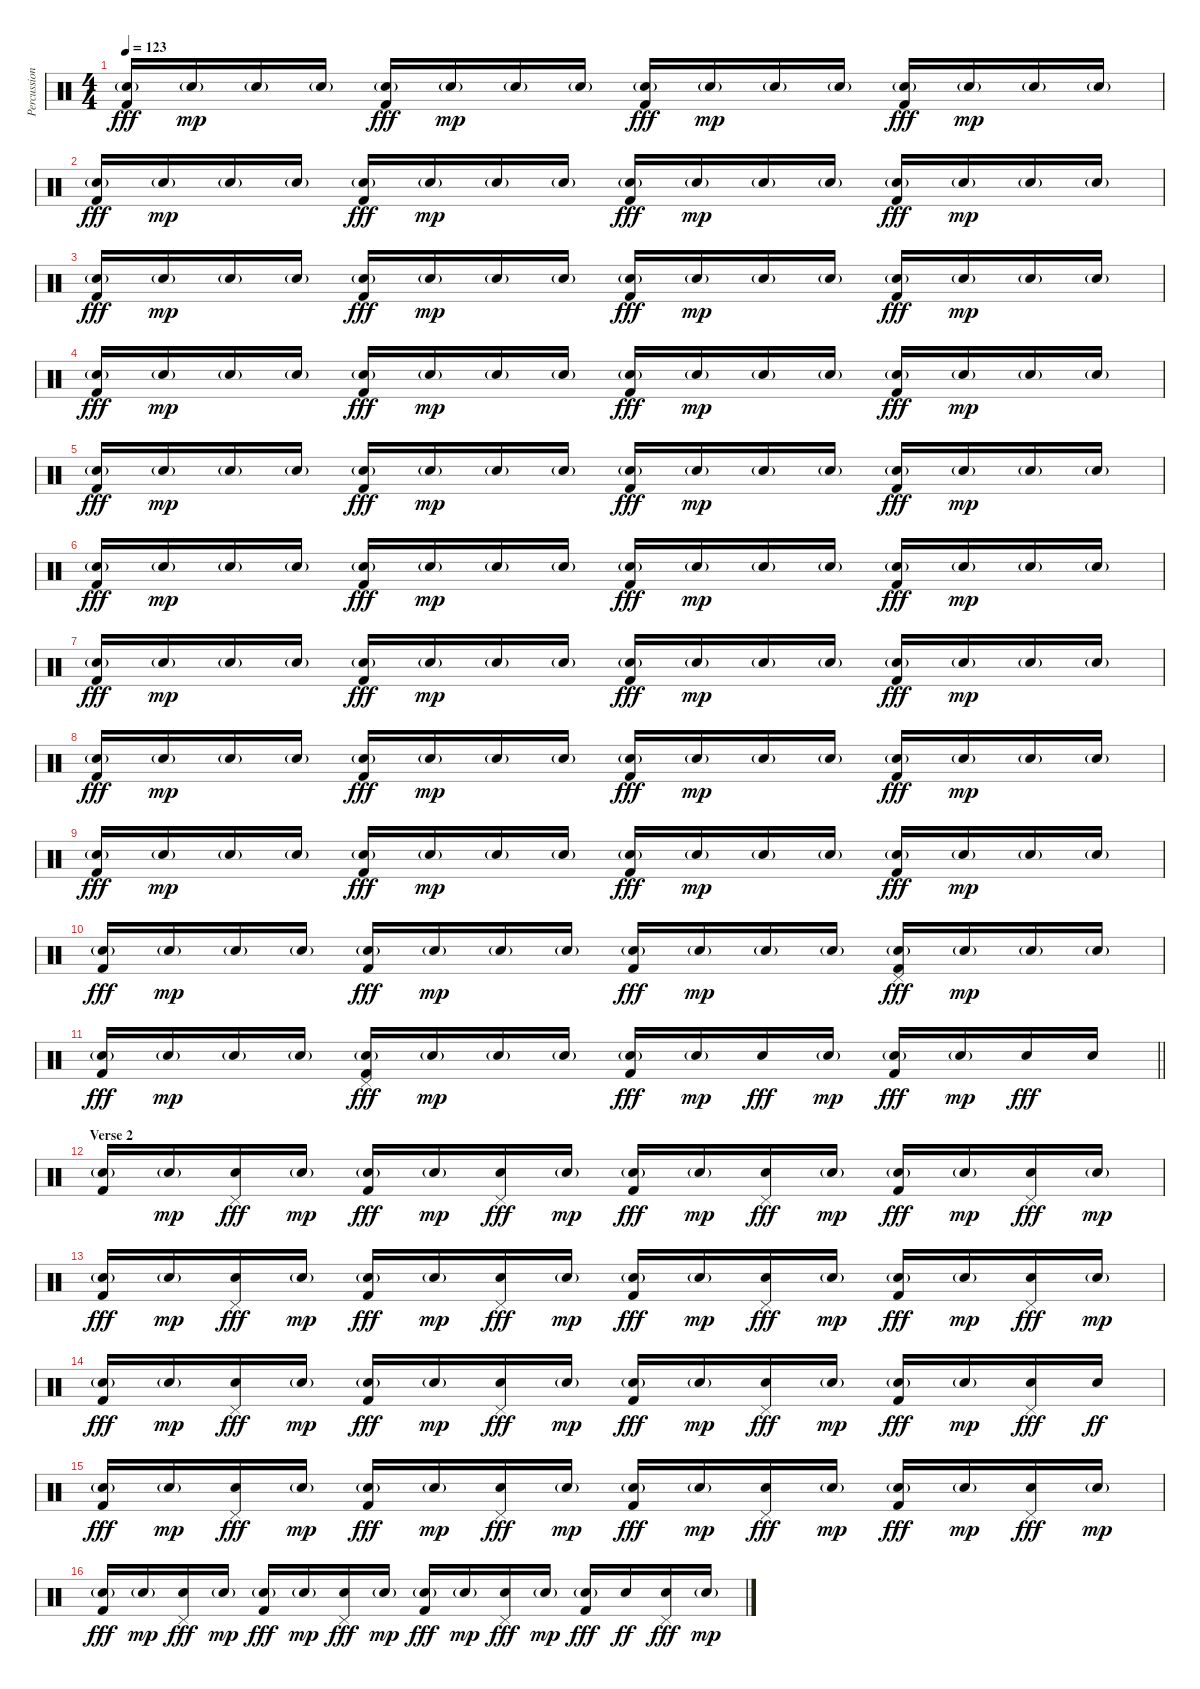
\track ("Percussion" "Percussion") {instrument percussion}
\staff {score}
\articulation defaults
\ts (4 4)
\tempo 123
\clef neutral
\ks c
("Electric Snare (hit)"{g} "Kick (hit) 2").16{dy fff} "Electric Snare (hit)"{g}.16{dy mp} "Electric Snare (hit)"{g}.16 "Electric Snare (hit)"{g}.16 ("Electric Snare (hit)"{g} "Kick (hit) 2").16{dy fff} "Electric Snare (hit)"{g}.16{dy mp} "Electric Snare (hit)"{g}.16 "Electric Snare (hit)"{g}.16 ("Electric Snare (hit)"{g} "Kick (hit) 2").16{dy fff} "Electric Snare (hit)"{g}.16{dy mp} "Electric Snare (hit)"{g}.16 "Electric Snare (hit)"{g}.16 ("Electric Snare (hit)"{g} "Kick (hit) 2").16{dy fff} "Electric Snare (hit)"{g}.16{dy mp} "Electric Snare (hit)"{g}.16 "Electric Snare (hit)"{g}.16 |
("Electric Snare (hit)"{g} "Kick (hit) 2").16{dy fff} "Electric Snare (hit)"{g}.16{dy mp} "Electric Snare (hit)"{g}.16 "Electric Snare (hit)"{g}.16 ("Electric Snare (hit)"{g} "Kick (hit) 2").16{dy fff} "Electric Snare (hit)"{g}.16{dy mp} "Electric Snare (hit)"{g}.16 "Electric Snare (hit)"{g}.16 ("Electric Snare (hit)"{g} "Kick (hit) 2").16{dy fff} "Electric Snare (hit)"{g}.16{dy mp} "Electric Snare (hit)"{g}.16 "Electric Snare (hit)"{g}.16 ("Electric Snare (hit)"{g} "Kick (hit) 2").16{dy fff} "Electric Snare (hit)"{g}.16{dy mp} "Electric Snare (hit)"{g}.16 "Electric Snare (hit)"{g}.16 |
("Electric Snare (hit)"{g} "Kick (hit) 2").16{dy fff} "Electric Snare (hit)"{g}.16{dy mp} "Electric Snare (hit)"{g}.16 "Electric Snare (hit)"{g}.16 ("Electric Snare (hit)"{g} "Kick (hit) 2").16{dy fff} "Electric Snare (hit)"{g}.16{dy mp} "Electric Snare (hit)"{g}.16 "Electric Snare (hit)"{g}.16 ("Electric Snare (hit)"{g} "Kick (hit) 2").16{dy fff} "Electric Snare (hit)"{g}.16{dy mp} "Electric Snare (hit)"{g}.16 "Electric Snare (hit)"{g}.16 ("Electric Snare (hit)"{g} "Kick (hit) 2").16{dy fff} "Electric Snare (hit)"{g}.16{dy mp} "Electric Snare (hit)"{g}.16 "Electric Snare (hit)"{g}.16 |
("Electric Snare (hit)"{g} "Kick (hit) 2").16{dy fff} "Electric Snare (hit)"{g}.16{dy mp} "Electric Snare (hit)"{g}.16 "Electric Snare (hit)"{g}.16 ("Electric Snare (hit)"{g} "Kick (hit) 2").16{dy fff} "Electric Snare (hit)"{g}.16{dy mp} "Electric Snare (hit)"{g}.16 "Electric Snare (hit)"{g}.16 ("Electric Snare (hit)"{g} "Kick (hit) 2").16{dy fff} "Electric Snare (hit)"{g}.16{dy mp} "Electric Snare (hit)"{g}.16 "Electric Snare (hit)"{g}.16 ("Electric Snare (hit)"{g} "Kick (hit) 2").16{dy fff} "Electric Snare (hit)"{g}.16{dy mp} "Electric Snare (hit)"{g}.16 "Electric Snare (hit)"{g}.16 |
("Electric Snare (hit)"{g} "Kick (hit) 2").16{dy fff} "Electric Snare (hit)"{g}.16{dy mp} "Electric Snare (hit)"{g}.16 "Electric Snare (hit)"{g}.16 ("Electric Snare (hit)"{g} "Kick (hit) 2").16{dy fff} "Electric Snare (hit)"{g}.16{dy mp} "Electric Snare (hit)"{g}.16 "Electric Snare (hit)"{g}.16 ("Electric Snare (hit)"{g} "Kick (hit) 2").16{dy fff} "Electric Snare (hit)"{g}.16{dy mp} "Electric Snare (hit)"{g}.16 "Electric Snare (hit)"{g}.16 ("Electric Snare (hit)"{g} "Kick (hit) 2").16{dy fff} "Electric Snare (hit)"{g}.16{dy mp} "Electric Snare (hit)"{g}.16 "Electric Snare (hit)"{g}.16 |
("Electric Snare (hit)"{g} "Kick (hit) 2").16{dy fff} "Electric Snare (hit)"{g}.16{dy mp} "Electric Snare (hit)"{g}.16 "Electric Snare (hit)"{g}.16 ("Electric Snare (hit)"{g} "Kick (hit) 2").16{dy fff} "Electric Snare (hit)"{g}.16{dy mp} "Electric Snare (hit)"{g}.16 "Electric Snare (hit)"{g}.16 ("Electric Snare (hit)"{g} "Kick (hit) 2").16{dy fff} "Electric Snare (hit)"{g}.16{dy mp} "Electric Snare (hit)"{g}.16 "Electric Snare (hit)"{g}.16 ("Electric Snare (hit)"{g} "Kick (hit) 2").16{dy fff} "Electric Snare (hit)"{g}.16{dy mp} "Electric Snare (hit)"{g}.16 "Electric Snare (hit)"{g}.16 |
("Electric Snare (hit)"{g} "Kick (hit) 2").16{dy fff} "Electric Snare (hit)"{g}.16{dy mp} "Electric Snare (hit)"{g}.16 "Electric Snare (hit)"{g}.16 ("Electric Snare (hit)"{g} "Kick (hit) 2").16{dy fff} "Electric Snare (hit)"{g}.16{dy mp} "Electric Snare (hit)"{g}.16 "Electric Snare (hit)"{g}.16 ("Electric Snare (hit)"{g} "Kick (hit) 2").16{dy fff} "Electric Snare (hit)"{g}.16{dy mp} "Electric Snare (hit)"{g}.16 "Electric Snare (hit)"{g}.16 ("Electric Snare (hit)"{g} "Kick (hit) 2").16{dy fff} "Electric Snare (hit)"{g}.16{dy mp} "Electric Snare (hit)"{g}.16 "Electric Snare (hit)"{g}.16 |
("Electric Snare (hit)"{g} "Kick (hit) 2").16{dy fff} "Electric Snare (hit)"{g}.16{dy mp} "Electric Snare (hit)"{g}.16 "Electric Snare (hit)"{g}.16 ("Electric Snare (hit)"{g} "Kick (hit) 2").16{dy fff} "Electric Snare (hit)"{g}.16{dy mp} "Electric Snare (hit)"{g}.16 "Electric Snare (hit)"{g}.16 ("Electric Snare (hit)"{g} "Kick (hit) 2").16{dy fff} "Electric Snare (hit)"{g}.16{dy mp} "Electric Snare (hit)"{g}.16 "Electric Snare (hit)"{g}.16 ("Electric Snare (hit)"{g} "Kick (hit) 2").16{dy fff} "Electric Snare (hit)"{g}.16{dy mp} "Electric Snare (hit)"{g}.16 "Electric Snare (hit)"{g}.16 |
("Electric Snare (hit)"{g} "Kick (hit) 2").16{dy fff} "Electric Snare (hit)"{g}.16{dy mp} "Electric Snare (hit)"{g}.16 "Electric Snare (hit)"{g}.16 ("Electric Snare (hit)"{g} "Kick (hit) 2").16{dy fff} "Electric Snare (hit)"{g}.16{dy mp} "Electric Snare (hit)"{g}.16 "Electric Snare (hit)"{g}.16 ("Electric Snare (hit)"{g} "Kick (hit) 2").16{dy fff} "Electric Snare (hit)"{g}.16{dy mp} "Electric Snare (hit)"{g}.16 "Electric Snare (hit)"{g}.16 ("Electric Snare (hit)"{g} "Kick (hit) 2").16{dy fff} "Electric Snare (hit)"{g}.16{dy mp} "Electric Snare (hit)"{g}.16 "Electric Snare (hit)"{g}.16 |
("Electric Snare (hit)"{g} "Kick (hit) 2").16{dy fff} "Electric Snare (hit)"{g}.16{dy mp} "Electric Snare (hit)"{g}.16 "Electric Snare (hit)"{g}.16 ("Electric Snare (hit)"{g} "Kick (hit) 2").16{dy fff} "Electric Snare (hit)"{g}.16{dy mp} "Electric Snare (hit)"{g}.16 "Electric Snare (hit)"{g}.16 ("Electric Snare (hit)"{g} "Kick (hit) 2").16{dy fff} "Electric Snare (hit)"{g}.16{dy mp} "Electric Snare (hit)"{g}.16 "Electric Snare (hit)"{g}.16 ("Pedal Hi-Hat (hit)" "Electric Snare (hit)"{g} "Kick (hit) 2").16{dy fff} "Electric Snare (hit)"{g}.16{dy mp} "Electric Snare (hit)"{g}.16 "Electric Snare (hit)"{g}.16 |
\barLineRight lightlight
("Electric Snare (hit)"{g} "Kick (hit) 2").16{dy fff} "Electric Snare (hit)"{g}.16{dy mp} "Electric Snare (hit)"{g}.16 "Electric Snare (hit)"{g}.16 ("Pedal Hi-Hat (hit)" "Electric Snare (hit)"{g} "Kick (hit) 2").16{dy fff} "Electric Snare (hit)"{g}.16{dy mp} "Electric Snare (hit)"{g}.16 "Electric Snare (hit)"{g}.16 ("Electric Snare (hit)"{g} "Kick (hit) 2").16{dy fff} "Electric Snare (hit)"{g}.16{dy mp} "Electric Snare (hit)".16{dy fff} "Electric Snare (hit)"{g}.16{dy mp} ("Electric Snare (hit)"{g} "Kick (hit) 2").16{dy fff} "Electric Snare (hit)"{g}.16{dy mp} "Electric Snare (hit)".16{dy fff} "Electric Snare (hit)".16 |
\section ("" "Verse 2")
("Electric Snare (hit)"{g} "Kick (hit) 2").16 "Electric Snare (hit)"{g}.16{dy mp} ("Pedal Hi-Hat (hit)" "Electric Snare (hit)").16{dy fff} "Electric Snare (hit)"{g}.16{dy mp} ("Electric Snare (hit)"{g} "Kick (hit) 2").16{dy fff} "Electric Snare (hit)"{g}.16{dy mp} ("Pedal Hi-Hat (hit)" "Electric Snare (hit)").16{dy fff} "Electric Snare (hit)"{g}.16{dy mp} ("Electric Snare (hit)"{g} "Kick (hit) 2").16{dy fff} "Electric Snare (hit)"{g}.16{dy mp} ("Pedal Hi-Hat (hit)" "Electric Snare (hit)").16{dy fff} "Electric Snare (hit)"{g}.16{dy mp} ("Electric Snare (hit)"{g} "Kick (hit) 2").16{dy fff} "Electric Snare (hit)"{g}.16{dy mp} ("Pedal Hi-Hat (hit)" "Electric Snare (hit)").16{dy fff} "Electric Snare (hit)"{g}.16{dy mp} |
("Electric Snare (hit)"{g} "Kick (hit) 2").16{dy fff} "Electric Snare (hit)"{g}.16{dy mp} ("Pedal Hi-Hat (hit)" "Electric Snare (hit)").16{dy fff} "Electric Snare (hit)"{g}.16{dy mp} ("Electric Snare (hit)"{g} "Kick (hit) 2").16{dy fff} "Electric Snare (hit)"{g}.16{dy mp} ("Pedal Hi-Hat (hit)" "Electric Snare (hit)").16{dy fff} "Electric Snare (hit)"{g}.16{dy mp} ("Electric Snare (hit)"{g} "Kick (hit) 2").16{dy fff} "Electric Snare (hit)"{g}.16{dy mp} ("Pedal Hi-Hat (hit)" "Electric Snare (hit)").16{dy fff} "Electric Snare (hit)"{g}.16{dy mp} ("Electric Snare (hit)"{g} "Kick (hit) 2").16{dy fff} "Electric Snare (hit)"{g}.16{dy mp} ("Pedal Hi-Hat (hit)" "Electric Snare (hit)").16{dy fff} "Electric Snare (hit)"{g}.16{dy mp} |
("Electric Snare (hit)"{g} "Kick (hit) 2").16{dy fff} "Electric Snare (hit)"{g}.16{dy mp} ("Pedal Hi-Hat (hit)" "Electric Snare (hit)").16{dy fff} "Electric Snare (hit)"{g}.16{dy mp} ("Electric Snare (hit)"{g} "Kick (hit) 2").16{dy fff} "Electric Snare (hit)"{g}.16{dy mp} ("Pedal Hi-Hat (hit)" "Electric Snare (hit)").16{dy fff} "Electric Snare (hit)"{g}.16{dy mp} ("Electric Snare (hit)"{g} "Kick (hit) 2").16{dy fff} "Electric Snare (hit)"{g}.16{dy mp} ("Pedal Hi-Hat (hit)" "Electric Snare (hit)").16{dy fff} "Electric Snare (hit)"{g}.16{dy mp} ("Electric Snare (hit)"{g} "Kick (hit) 2").16{dy fff} "Electric Snare (hit)"{g}.16{dy mp} ("Pedal Hi-Hat (hit)" "Electric Snare (hit)").16{dy fff} "Electric Snare (hit)".16{dy ff} |
("Electric Snare (hit)"{g} "Kick (hit) 2").16{dy fff} "Electric Snare (hit)"{g}.16{dy mp} ("Pedal Hi-Hat (hit)" "Electric Snare (hit)").16{dy fff} "Electric Snare (hit)"{g}.16{dy mp} ("Electric Snare (hit)"{g} "Kick (hit) 2").16{dy fff} "Electric Snare (hit)"{g}.16{dy mp} ("Pedal Hi-Hat (hit)" "Electric Snare (hit)").16{dy fff} "Electric Snare (hit)"{g}.16{dy mp} ("Electric Snare (hit)"{g} "Kick (hit) 2").16{dy fff} "Electric Snare (hit)"{g}.16{dy mp} ("Pedal Hi-Hat (hit)" "Electric Snare (hit)").16{dy fff} "Electric Snare (hit)"{g}.16{dy mp} ("Electric Snare (hit)"{g} "Kick (hit) 2").16{dy fff} "Electric Snare (hit)"{g}.16{dy mp} ("Pedal Hi-Hat (hit)" "Electric Snare (hit)").16{dy fff} "Electric Snare (hit)"{g}.16{dy mp} |
("Electric Snare (hit)"{g} "Kick (hit) 2").16{dy fff} "Electric Snare (hit)"{g}.16{dy mp} ("Pedal Hi-Hat (hit)" "Electric Snare (hit)").16{dy fff} "Electric Snare (hit)"{g}.16{dy mp} ("Electric Snare (hit)"{g} "Kick (hit) 2").16{dy fff} "Electric Snare (hit)"{g}.16{dy mp} ("Pedal Hi-Hat (hit)" "Electric Snare (hit)").16{dy fff} "Electric Snare (hit)"{g}.16{dy mp} ("Electric Snare (hit)"{g} "Kick (hit) 2").16{dy fff} "Electric Snare (hit)"{g}.16{dy mp} ("Pedal Hi-Hat (hit)" "Electric Snare (hit)").16{dy fff} "Electric Snare (hit)"{g}.16{dy mp} ("Electric Snare (hit)"{g} "Kick (hit) 2").16{dy fff} "Electric Snare (hit)".16{dy ff} ("Pedal Hi-Hat (hit)" "Electric Snare (hit)").16{dy fff} "Electric Snare (hit)"{g}.16{dy mp}
